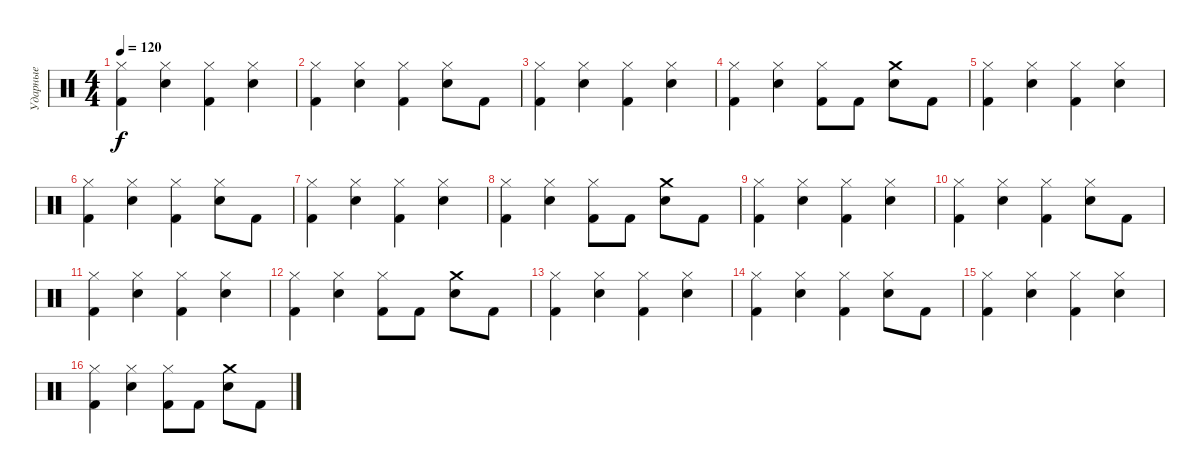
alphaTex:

\track ("Ударные" "Ударные") {instrument percussion}
\staff {score}
\articulation defaults
\ts (4 4)
\tempo 120
\clef neutral
\ks c
("Hi-Hat (closed)" "Kick (hit) 2").4{dy f} ("Hi-Hat (closed)" "Electric Snare (hit)").4 ("Hi-Hat (closed)" "Kick (hit) 2").4 ("Hi-Hat (closed)" "Electric Snare (hit)").4 |
("Hi-Hat (closed)" "Kick (hit) 2").4 ("Hi-Hat (closed)" "Electric Snare (hit)").4 ("Hi-Hat (closed)" "Kick (hit) 2").4 ("Hi-Hat (closed)" "Electric Snare (hit)").8 "Kick (hit) 2".8 |
("Hi-Hat (closed)" "Kick (hit) 2").4 ("Hi-Hat (closed)" "Electric Snare (hit)").4 ("Hi-Hat (closed)" "Kick (hit) 2").4 ("Hi-Hat (closed)" "Electric Snare (hit)").4 |
("Hi-Hat (closed)" "Kick (hit) 2").4 ("Hi-Hat (closed)" "Electric Snare (hit)").4 ("Hi-Hat (closed)" "Kick (hit) 2").8 "Kick (hit) 2".8 ("Crash medium (hit)" "Electric Snare (hit)").8 "Kick (hit) 2".8 |
("Hi-Hat (closed)" "Kick (hit) 2").4 ("Hi-Hat (closed)" "Electric Snare (hit)").4 ("Hi-Hat (closed)" "Kick (hit) 2").4 ("Hi-Hat (closed)" "Electric Snare (hit)").4 |
("Hi-Hat (closed)" "Kick (hit) 2").4 ("Hi-Hat (closed)" "Electric Snare (hit)").4 ("Hi-Hat (closed)" "Kick (hit) 2").4 ("Hi-Hat (closed)" "Electric Snare (hit)").8 "Kick (hit) 2".8 |
("Hi-Hat (closed)" "Kick (hit) 2").4 ("Hi-Hat (closed)" "Electric Snare (hit)").4 ("Hi-Hat (closed)" "Kick (hit) 2").4 ("Hi-Hat (closed)" "Electric Snare (hit)").4 |
("Hi-Hat (closed)" "Kick (hit) 2").4 ("Hi-Hat (closed)" "Electric Snare (hit)").4 ("Hi-Hat (closed)" "Kick (hit) 2").8 "Kick (hit) 2".8 ("Crash medium (hit)" "Electric Snare (hit)").8 "Kick (hit) 2".8 |
("Hi-Hat (closed)" "Kick (hit) 2").4 ("Hi-Hat (closed)" "Electric Snare (hit)").4 ("Hi-Hat (closed)" "Kick (hit) 2").4 ("Hi-Hat (closed)" "Electric Snare (hit)").4 |
("Hi-Hat (closed)" "Kick (hit) 2").4 ("Hi-Hat (closed)" "Electric Snare (hit)").4 ("Hi-Hat (closed)" "Kick (hit) 2").4 ("Hi-Hat (closed)" "Electric Snare (hit)").8 "Kick (hit) 2".8 |
("Hi-Hat (closed)" "Kick (hit) 2").4 ("Hi-Hat (closed)" "Electric Snare (hit)").4 ("Hi-Hat (closed)" "Kick (hit) 2").4 ("Hi-Hat (closed)" "Electric Snare (hit)").4 |
("Hi-Hat (closed)" "Kick (hit) 2").4 ("Hi-Hat (closed)" "Electric Snare (hit)").4 ("Hi-Hat (closed)" "Kick (hit) 2").8 "Kick (hit) 2".8 ("Crash medium (hit)" "Electric Snare (hit)").8 "Kick (hit) 2".8 |
("Hi-Hat (closed)" "Kick (hit) 2").4 ("Hi-Hat (closed)" "Electric Snare (hit)").4 ("Hi-Hat (closed)" "Kick (hit) 2").4 ("Hi-Hat (closed)" "Electric Snare (hit)").4 |
("Hi-Hat (closed)" "Kick (hit) 2").4 ("Hi-Hat (closed)" "Electric Snare (hit)").4 ("Hi-Hat (closed)" "Kick (hit) 2").4 ("Hi-Hat (closed)" "Electric Snare (hit)").8 "Kick (hit) 2".8 |
("Hi-Hat (closed)" "Kick (hit) 2").4 ("Hi-Hat (closed)" "Electric Snare (hit)").4 ("Hi-Hat (closed)" "Kick (hit) 2").4 ("Hi-Hat (closed)" "Electric Snare (hit)").4 |
("Hi-Hat (closed)" "Kick (hit) 2").4 ("Hi-Hat (closed)" "Electric Snare (hit)").4 ("Hi-Hat (closed)" "Kick (hit) 2").8 "Kick (hit) 2".8 ("Crash medium (hit)" "Electric Snare (hit)").8 "Kick (hit) 2".8
